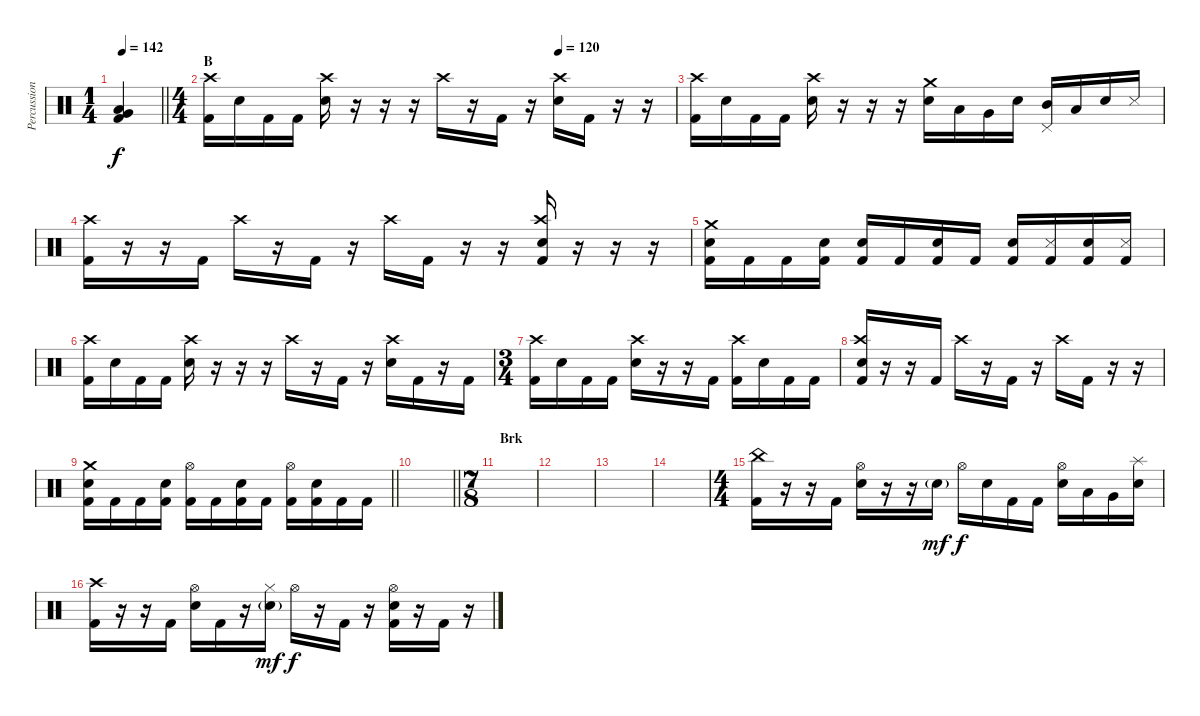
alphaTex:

\track ("Percussion" "Percussion") {instrument percussion}
\staff {score}
\articulation defaults
\ts (1 4)
\tempo 142
\clef neutral
\barLineRight lightlight
\ks c
("Very Low Tom (hit)" "Low Floor Tom (hit)" "Kick (hit) 2").4{dy f} |
\ts (4 4)
\section ("" "B")
\tempo (120 0.75)
("Crash high (hit)" "Kick (hit) 2").16 "Snare (hit) 2".16 "Kick (hit) 2".16 "Kick (hit) 2".16 ("Crash high (hit)" "Snare (hit) 2").16 r.16 r.16 r.16 "Crash high (hit)".16 r.16 "Kick (hit) 2".16 r.16 ("Crash high (hit)" "Snare (hit) 2").16 "Kick (hit) 2".16 r.16 r.16 |
("Crash high (hit)" "Kick (hit) 2").16 "Snare (hit) 2".16 "Kick (hit) 2".16 "Kick (hit) 2".16 ("Crash high (hit)" "Snare (hit) 2").16 r.16 r.16 r.16 ("Crash medium (hit)" "Snare (hit) 2").16 "Low Tom (hit)".16 "Very Low Tom (hit)".16 "Snare (hit) 2".16 ("Pedal Hi-Hat (hit)" "Mid Tom (hit)").16 "Low Tom (hit)".16 "Snare (hit) 2".16 "Metronome (hit)".16 |
("Crash high (hit)" "Kick (hit) 2").16 r.16 r.16 "Kick (hit) 2".16 "Crash high (hit)".16 r.16 "Kick (hit) 2".16 r.16 "Crash high (hit)".16 "Kick (hit) 2".16 r.16 r.16 ("Crash high (hit)" "Snare (hit) 2" "Kick (hit) 2").16 r.16 r.16 r.16 |
("Crash medium (hit)" "Snare (hit) 2" "Kick (hit) 2").16 "Kick (hit) 2".16 "Kick (hit) 2".16 ("Snare (hit) 2" "Kick (hit) 2").16 ("Snare (hit)" "Kick (hit) 2").16 "Kick (hit) 2".16 ("Snare (hit) 2" "Kick (hit) 2").16 "Kick (hit) 2".16 ("Snare (hit) 2" "Kick (hit) 2").16 ("Metronome (hit)" "Kick (hit) 2").16 ("Snare (hit) 2" "Kick (hit) 2").16 ("Metronome (hit)" "Kick (hit) 2").16 |
("Crash high (hit)" "Kick (hit) 2").16 "Snare (hit) 2".16 "Kick (hit) 2".16 "Kick (hit) 2".16 ("Crash high (hit)" "Snare (hit) 2").16 r.16 r.16 r.16 "Crash high (hit)".16 r.16 "Kick (hit) 2".16 r.16 ("Crash high (hit)" "Snare (hit) 2").16 "Kick (hit) 2".16 r.16 "Kick (hit) 2".16 |
\ts (3 4)
("Crash high (hit)" "Kick (hit) 2").16 "Snare (hit) 2".16 "Kick (hit) 2".16 "Kick (hit) 2".16 ("Crash high (hit)" "Snare (hit) 2").16 r.16 r.16 "Kick (hit) 2".16 ("Crash high (hit)" "Kick (hit) 2").16 "Snare (hit) 2".16 "Kick (hit) 2".16 "Kick (hit) 2".16 |
("Crash high (hit)" "Snare (hit) 2" "Kick (hit) 2").16 r.16 r.16 "Kick (hit) 2".16 "Crash high (hit)".16 r.16 "Kick (hit) 2".16 r.16 "Crash high (hit)".16 "Kick (hit) 2".16 r.16 r.16 |
\barLineRight lightlight
("Crash medium (hit)" "Snare (hit) 2" "Kick (hit) 2").16 "Kick (hit) 2".16 "Kick (hit) 2".16 ("Snare (hit) 2" "Kick (hit) 2").16 ("Hi-Hat (open)" "Kick (hit) 2").16 "Kick (hit) 2".16 ("Snare (hit) 2" "Kick (hit) 2").16 "Kick (hit) 2".16 ("Hi-Hat (open)" "Kick (hit) 2").16 ("Snare (hit) 2" "Kick (hit) 2").16 "Kick (hit) 2".16 "Kick (hit) 2".16 |
\barLineRight lightlight
|
\ts (7 8)
\section ("" "Brk")
|
|
|
|
\ts (4 4)
("China (hit)" "Kick (hit) 2").16 r.16 r.16 "Kick (hit) 2".16 ("Hi-Hat (open)" "Snare (hit) 2").16 r.16 r.16 "Snare (hit) 2"{g}.16{dy mf} "Hi-Hat (open)".16{dy f} "Snare (hit) 2".16 "Kick (hit) 2".16 "Kick (hit) 2".16 ("Hi-Hat (open)" "Snare (hit) 2").16 "Low Tom (hit)".16 "Very Low Tom (hit)".16 ("Splash (hit)" "Snare (hit) 2").16 |
("Crash high (hit)" "Kick (hit) 2").16 r.16 r.16 "Kick (hit) 2".16 ("Hi-Hat (open)" "Snare (hit) 2").16 "Kick (hit) 2".16 r.16 ("Hi-Hat (closed)" "Snare (hit) 2"{g}).16{dy mf} "Hi-Hat (open)".16{dy f} r.16 "Kick (hit) 2".16 r.16 ("Hi-Hat (open)" "Snare (hit) 2" "Kick (hit) 2").16 r.16 "Kick (hit) 2".16 r.16
